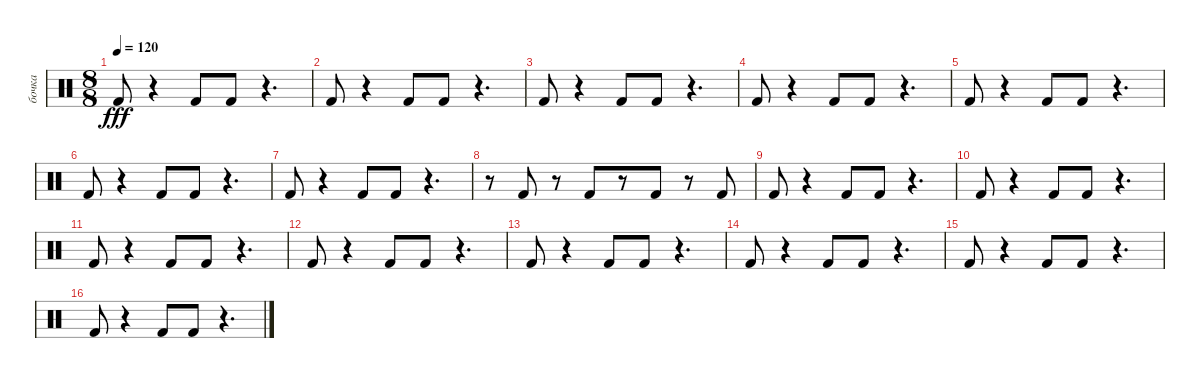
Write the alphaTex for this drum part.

\track ("бочка" "бочка") {instrument percussion}
\staff {score}
\articulation defaults
\ts (8 8)
\tempo 120
\clef neutral
\ks c "Kick (hit) 2".8{dy fff}
r.4 "Kick (hit) 2".8 "Kick (hit) 2".8 r.4{d} |
"Kick (hit) 2".8 r.4 "Kick (hit) 2".8 "Kick (hit) 2".8 r.4{d} |
"Kick (hit) 2".8 r.4 "Kick (hit) 2".8 "Kick (hit) 2".8 r.4{d} |
"Kick (hit) 2".8 r.4 "Kick (hit) 2".8 "Kick (hit) 2".8 r.4{d} |
"Kick (hit) 2".8 r.4 "Kick (hit) 2".8 "Kick (hit) 2".8 r.4{d} |
"Kick (hit) 2".8 r.4 "Kick (hit) 2".8 "Kick (hit) 2".8 r.4{d} |
"Kick (hit) 2".8 r.4 "Kick (hit) 2".8 "Kick (hit) 2".8 r.4{d} |
r.8 "Kick (hit) 2".8 r.8 "Kick (hit) 2".8 r.8 "Kick (hit) 2".8 r.8 "Kick (hit) 2".8 |
"Kick (hit) 2".8 r.4 "Kick (hit) 2".8 "Kick (hit) 2".8 r.4{d} |
"Kick (hit) 2".8 r.4 "Kick (hit) 2".8 "Kick (hit) 2".8 r.4{d} |
"Kick (hit) 2".8 r.4 "Kick (hit) 2".8 "Kick (hit) 2".8 r.4{d} |
"Kick (hit) 2".8 r.4 "Kick (hit) 2".8 "Kick (hit) 2".8 r.4{d} |
"Kick (hit) 2".8 r.4 "Kick (hit) 2".8 "Kick (hit) 2".8 r.4{d} |
"Kick (hit) 2".8 r.4 "Kick (hit) 2".8 "Kick (hit) 2".8 r.4{d} |
"Kick (hit) 2".8 r.4 "Kick (hit) 2".8 "Kick (hit) 2".8 r.4{d} |
"Kick (hit) 2".8 r.4 "Kick (hit) 2".8 "Kick (hit) 2".8 r.4{d}
